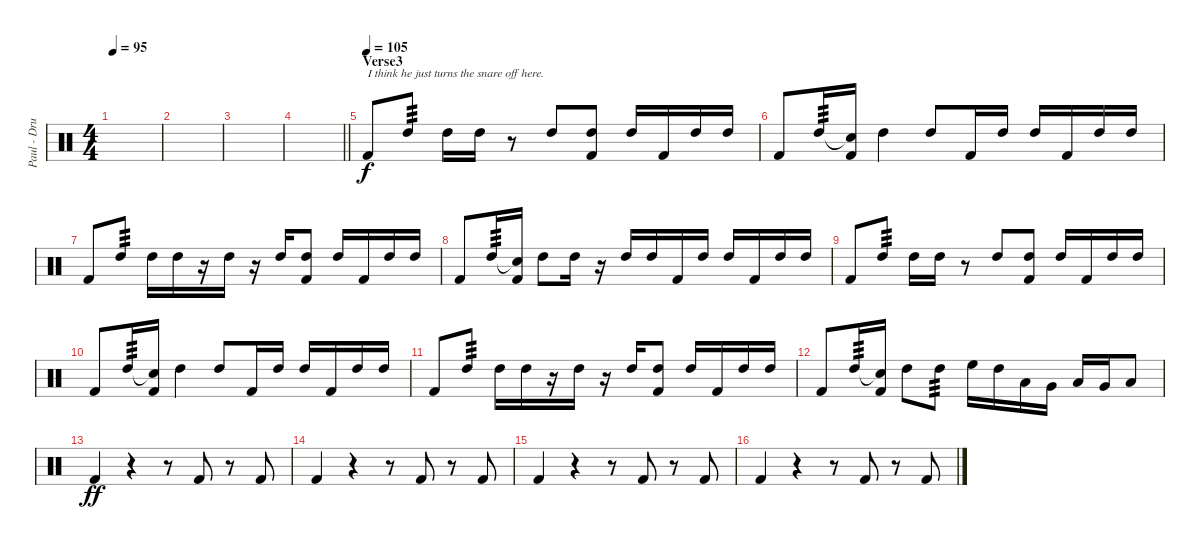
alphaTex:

\track ("Paul - Drums" "Paul - Dru") {instrument percussion}
\staff {score}
\articulation defaults
\ts (4 4)
\tempo 95
\clef neutral
\ks c
|
|
|
\barLineRight lightlight
|
\section ("" "Verse3")
\tempo (105)
"Kick (hit) 2".8{txt "I think he just turns the snare off here."} "High Tom (hit)".8{tp 3} "High Tom (hit)".16 "High Tom (hit)".16 r.8 "High Tom (hit)".8 ("High Tom (hit)" "Kick (hit) 2").8 "High Tom (hit)".16 "Kick (hit) 2".16 "High Tom (hit)".16 "High Tom (hit)".16 |
"Kick (hit) 2".8 "High Tom (hit)".16{tp 3} ("Snare (hit)"{t} "Kick (hit) 2").16 "High Tom (hit)".4 "High Tom (hit)".8 "Kick (hit) 2".16 "High Tom (hit)".16 "High Tom (hit)".16 "Kick (hit) 2".16 "High Tom (hit)".16 "High Tom (hit)".16 |
"Kick (hit) 2".8 "High Tom (hit)".8{tp 3} "High Tom (hit)".16 "High Tom (hit)".16 r.16 "High Tom (hit)".16 r.16 "High Tom (hit)".16 ("High Tom (hit)" "Kick (hit) 2").8 "High Tom (hit)".16 "Kick (hit) 2".16 "High Tom (hit)".16 "High Tom (hit)".16 |
"Kick (hit) 2".8 "High Tom (hit)".16{tp 3} ("Snare (hit)"{t} "Kick (hit) 2").16 "High Tom (hit)".8 "High Tom (hit)".16 r.16 "High Tom (hit)".16 "High Tom (hit)".16 "Kick (hit) 2".16 "High Tom (hit)".16 "High Tom (hit)".16 "Kick (hit) 2".16 "High Tom (hit)".16 "High Tom (hit)".16 |
"Kick (hit) 2".8 "High Tom (hit)".8{tp 3} "High Tom (hit)".16 "High Tom (hit)".16 r.8 "High Tom (hit)".8 ("High Tom (hit)" "Kick (hit) 2").8 "High Tom (hit)".16 "Kick (hit) 2".16 "High Tom (hit)".16 "High Tom (hit)".16 |
"Kick (hit) 2".8 "High Tom (hit)".16{tp 3} ("Snare (hit)"{t} "Kick (hit) 2").16 "High Tom (hit)".4 "High Tom (hit)".8 "Kick (hit) 2".16 "High Tom (hit)".16 "High Tom (hit)".16 "Kick (hit) 2".16 "High Tom (hit)".16 "High Tom (hit)".16 |
"Kick (hit) 2".8 "High Tom (hit)".8{tp 3} "High Tom (hit)".16 "High Tom (hit)".16 r.16 "High Tom (hit)".16 r.16 "High Tom (hit)".16 ("High Tom (hit)" "Kick (hit) 2").8 "High Tom (hit)".16 "Kick (hit) 2".16 "High Tom (hit)".16 "High Tom (hit)".16 |
"Kick (hit) 2".8 "High Tom (hit)".16{tp 3} ("Snare (hit)"{t} "Kick (hit) 2").16 "High Tom (hit)".8 "High Tom (hit)".8{tp 3} "High Floor Tom (hit)".16 "High Tom (hit)".16 "Low Tom (hit)".16 "Very Low Tom (hit)".16 "Low Tom (hit)".16 "Very Low Tom (hit)".16 "Low Floor Tom (hit)".8 |
"Kick (hit) 2".4{dy ff} r.4 r.8 "Kick (hit) 2".8 r.8 "Kick (hit) 2".8 |
"Kick (hit) 2".4 r.4 r.8 "Kick (hit) 2".8 r.8 "Kick (hit) 2".8 |
"Kick (hit) 2".4 r.4 r.8 "Kick (hit) 2".8 r.8 "Kick (hit) 2".8 |
"Kick (hit) 2".4 r.4 r.8 "Kick (hit) 2".8 r.8 "Kick (hit) 2".8
